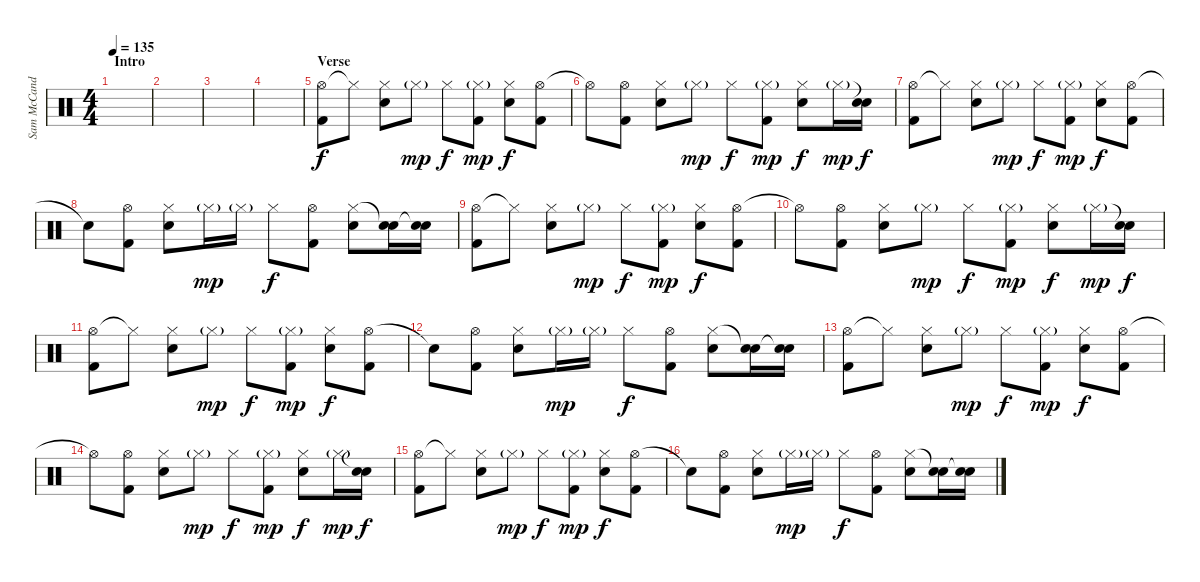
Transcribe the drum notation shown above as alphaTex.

\track ("Sam McCandless (Drums)" "Sam McCand") {instrument percussion}
\staff {score}
\articulation defaults
\ts (4 4)
\section ("" "Intro")
\tempo 135
\clef neutral
\ks c
|
|
|
|
\section ("" "Verse")
("Hi-Hat (open)" "Kick (hit) 2").8 "Hi-Hat (closed)"{t}.8 ("Hi-Hat (closed)" "Electric Snare (hit)").8 "Hi-Hat (closed)"{g}.8{dy mp} "Hi-Hat (closed)".8{dy f} ("Hi-Hat (closed)"{g} "Kick (hit) 2").8{dy mp} ("Hi-Hat (closed)" "Electric Snare (hit)").8{dy f} ("Hi-Hat (open)" "Kick (hit) 2").8 |
"Hi-Hat (open)"{t}.8 ("Hi-Hat (open)" "Kick (hit) 2").8 ("Hi-Hat (closed)" "Electric Snare (hit)").8 "Hi-Hat (closed)"{g}.8{dy mp} "Hi-Hat (closed)".8{dy f} ("Hi-Hat (closed)"{g} "Kick (hit) 2").8{dy mp} ("Hi-Hat (closed)" "Electric Snare (hit)").8{dy f} "Hi-Hat (closed)"{g}.16{dy mp} ("Snare (hit)"{t} "Electric Snare (hit)").16{dy f} |
("Hi-Hat (open)" "Kick (hit) 2").8 "Hi-Hat (closed)"{t}.8 ("Hi-Hat (closed)" "Electric Snare (hit)").8 "Hi-Hat (closed)"{g}.8{dy mp} "Hi-Hat (closed)".8{dy f} ("Hi-Hat (closed)"{g} "Kick (hit) 2").8{dy mp} ("Hi-Hat (closed)" "Electric Snare (hit)").8{dy f} ("Hi-Hat (open)" "Kick (hit) 2").8 |
"Snare (hit)"{t}.8 ("Hi-Hat (open)" "Kick (hit) 2").8 ("Hi-Hat (closed)" "Electric Snare (hit)").8 "Hi-Hat (closed)"{g}.16{dy mp} "Hi-Hat (closed)"{g}.16 "Hi-Hat (closed)".8{dy f} ("Hi-Hat (open)" "Kick (hit) 2").8 ("Hi-Hat (closed)" "Electric Snare (hit)").8 ("Snare (hit)"{t} "Electric Snare (hit)").16 ("Snare (hit)"{t} "Electric Snare (hit)").16 |
("Hi-Hat (open)" "Kick (hit) 2").8 "Hi-Hat (closed)"{t}.8 ("Hi-Hat (closed)" "Electric Snare (hit)").8 "Hi-Hat (closed)"{g}.8{dy mp} "Hi-Hat (closed)".8{dy f} ("Hi-Hat (closed)"{g} "Kick (hit) 2").8{dy mp} ("Hi-Hat (closed)" "Electric Snare (hit)").8{dy f} ("Hi-Hat (open)" "Kick (hit) 2").8 |
"Hi-Hat (open)"{t}.8 ("Hi-Hat (open)" "Kick (hit) 2").8 ("Hi-Hat (closed)" "Electric Snare (hit)").8 "Hi-Hat (closed)"{g}.8{dy mp} "Hi-Hat (closed)".8{dy f} ("Hi-Hat (closed)"{g} "Kick (hit) 2").8{dy mp} ("Hi-Hat (closed)" "Electric Snare (hit)").8{dy f} "Hi-Hat (closed)"{g}.16{dy mp} ("Snare (hit)"{t} "Electric Snare (hit)").16{dy f} |
("Hi-Hat (open)" "Kick (hit) 2").8 "Hi-Hat (closed)"{t}.8 ("Hi-Hat (closed)" "Electric Snare (hit)").8 "Hi-Hat (closed)"{g}.8{dy mp} "Hi-Hat (closed)".8{dy f} ("Hi-Hat (closed)"{g} "Kick (hit) 2").8{dy mp} ("Hi-Hat (closed)" "Electric Snare (hit)").8{dy f} ("Hi-Hat (open)" "Kick (hit) 2").8 |
"Snare (hit)"{t}.8 ("Hi-Hat (open)" "Kick (hit) 2").8 ("Hi-Hat (closed)" "Electric Snare (hit)").8 "Hi-Hat (closed)"{g}.16{dy mp} "Hi-Hat (closed)"{g}.16 "Hi-Hat (closed)".8{dy f} ("Hi-Hat (open)" "Kick (hit) 2").8 ("Hi-Hat (closed)" "Electric Snare (hit)").8 ("Snare (hit)"{t} "Electric Snare (hit)").16 ("Snare (hit)"{t} "Electric Snare (hit)").16 |
("Hi-Hat (open)" "Kick (hit) 2").8 "Hi-Hat (closed)"{t}.8 ("Hi-Hat (closed)" "Electric Snare (hit)").8 "Hi-Hat (closed)"{g}.8{dy mp} "Hi-Hat (closed)".8{dy f} ("Hi-Hat (closed)"{g} "Kick (hit) 2").8{dy mp} ("Hi-Hat (closed)" "Electric Snare (hit)").8{dy f} ("Hi-Hat (open)" "Kick (hit) 2").8 |
"Hi-Hat (open)"{t}.8 ("Hi-Hat (open)" "Kick (hit) 2").8 ("Hi-Hat (closed)" "Electric Snare (hit)").8 "Hi-Hat (closed)"{g}.8{dy mp} "Hi-Hat (closed)".8{dy f} ("Hi-Hat (closed)"{g} "Kick (hit) 2").8{dy mp} ("Hi-Hat (closed)" "Electric Snare (hit)").8{dy f} "Hi-Hat (closed)"{g}.16{dy mp} ("Snare (hit)"{t} "Electric Snare (hit)").16{dy f} |
("Hi-Hat (open)" "Kick (hit) 2").8 "Hi-Hat (closed)"{t}.8 ("Hi-Hat (closed)" "Electric Snare (hit)").8 "Hi-Hat (closed)"{g}.8{dy mp} "Hi-Hat (closed)".8{dy f} ("Hi-Hat (closed)"{g} "Kick (hit) 2").8{dy mp} ("Hi-Hat (closed)" "Electric Snare (hit)").8{dy f} ("Hi-Hat (open)" "Kick (hit) 2").8 |
"Snare (hit)"{t}.8 ("Hi-Hat (open)" "Kick (hit) 2").8 ("Hi-Hat (closed)" "Electric Snare (hit)").8 "Hi-Hat (closed)"{g}.16{dy mp} "Hi-Hat (closed)"{g}.16 "Hi-Hat (closed)".8{dy f} ("Hi-Hat (open)" "Kick (hit) 2").8 ("Hi-Hat (closed)" "Electric Snare (hit)").8 ("Snare (hit)"{t} "Electric Snare (hit)").16 ("Snare (hit)"{t} "Electric Snare (hit)").16
